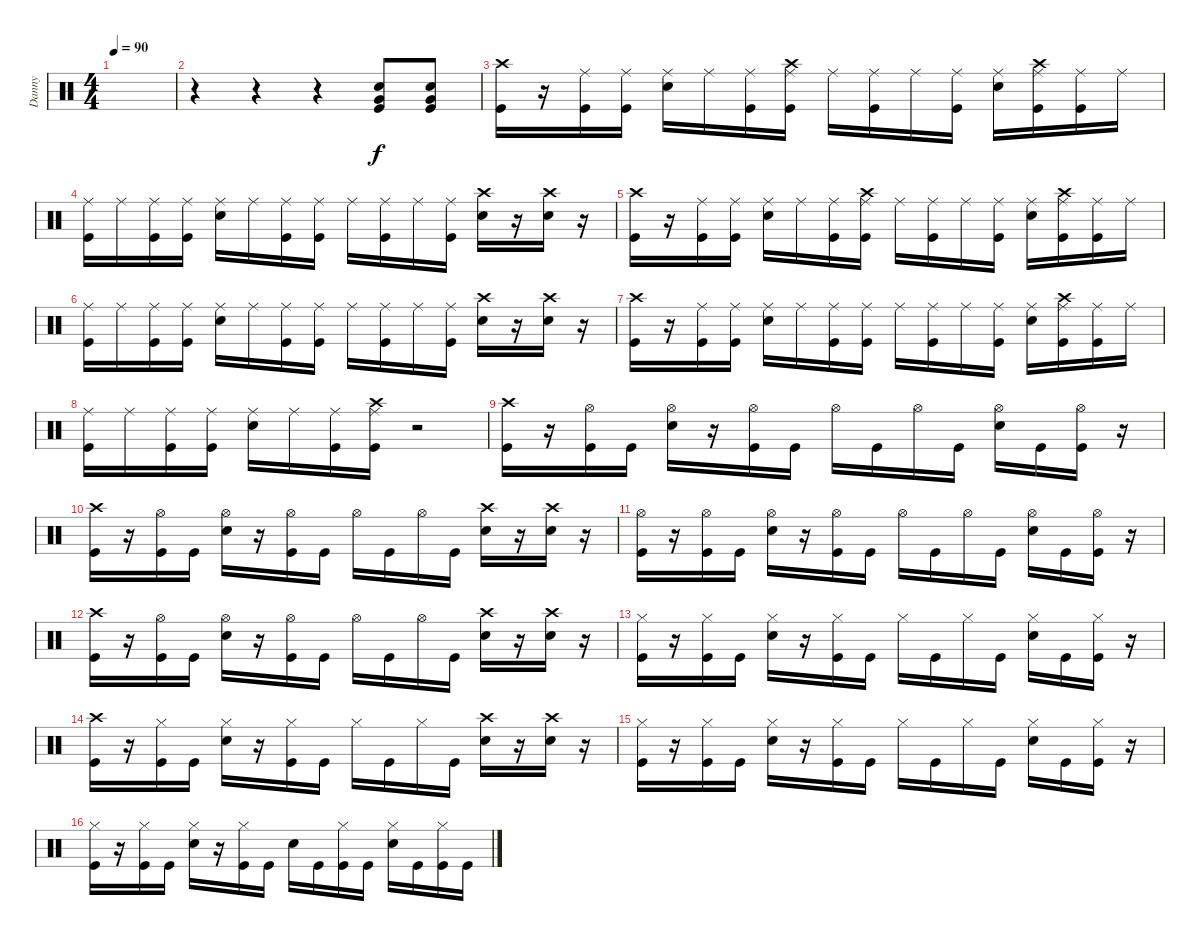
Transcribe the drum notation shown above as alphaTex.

\track ("Danny" "Danny") {instrument percussion}
\staff {score}
\articulation defaults
\ts (4 4)
\tempo 90
\clef neutral
\ks c
|
r.4 r.4 r.4 ("Electric Snare (hit)" "Very Low Tom (hit)" "Kick (hit)").8 ("Electric Snare (hit)" "Very Low Tom (hit)" "Kick (hit)").8 |
("Crash high (hit)" "Kick (hit)").16 r.16 ("Ride (middle)" "Kick (hit)").16 ("Ride (middle)" "Kick (hit)").16 ("Ride (middle)" "Electric Snare (hit)").16 "Ride (middle)".16 ("Ride (middle)" "Kick (hit)").16 ("Crash high (hit)" "Ride (middle)" "Kick (hit)").16 "Ride (middle)".16 ("Ride (middle)" "Kick (hit)").16 "Ride (middle)".16 ("Ride (middle)" "Kick (hit)").16 ("Ride (middle)" "Electric Snare (hit)").16 ("Crash high (hit)" "Ride (middle)" "Kick (hit)").16 ("Ride (middle)" "Kick (hit)").16 "Ride (middle)".16 |
("Ride (middle)" "Kick (hit)").16 "Ride (middle)".16 ("Ride (middle)" "Kick (hit)").16 ("Ride (middle)" "Kick (hit)").16 ("Ride (middle)" "Electric Snare (hit)").16 "Ride (middle)".16 ("Ride (middle)" "Kick (hit)").16 ("Ride (middle)" "Kick (hit)").16 "Ride (middle)".16 ("Ride (middle)" "Kick (hit)").16 "Ride (middle)".16 ("Ride (middle)" "Kick (hit)").16 ("Crash high (hit)" "Electric Snare (hit)").16 r.16 ("Crash high (hit)" "Electric Snare (hit)").16 r.16 |
("Crash high (hit)" "Kick (hit)").16 r.16 ("Ride (middle)" "Kick (hit)").16 ("Ride (middle)" "Kick (hit)").16 ("Ride (middle)" "Electric Snare (hit)").16 "Ride (middle)".16 ("Ride (middle)" "Kick (hit)").16 ("Crash high (hit)" "Ride (middle)" "Kick (hit)").16 "Ride (middle)".16 ("Ride (middle)" "Kick (hit)").16 "Ride (middle)".16 ("Ride (middle)" "Kick (hit)").16 ("Ride (middle)" "Electric Snare (hit)").16 ("Crash high (hit)" "Ride (middle)" "Kick (hit)").16 ("Ride (middle)" "Kick (hit)").16 "Ride (middle)".16 |
("Ride (middle)" "Kick (hit)").16 "Ride (middle)".16 ("Ride (middle)" "Kick (hit)").16 ("Ride (middle)" "Kick (hit)").16 ("Ride (middle)" "Electric Snare (hit)").16 "Ride (middle)".16 ("Ride (middle)" "Kick (hit)").16 ("Ride (middle)" "Kick (hit)").16 "Ride (middle)".16 ("Ride (middle)" "Kick (hit)").16 "Ride (middle)".16 ("Ride (middle)" "Kick (hit)").16 ("Crash high (hit)" "Electric Snare (hit)").16 r.16 ("Crash high (hit)" "Electric Snare (hit)").16 r.16 |
("Crash high (hit)" "Kick (hit)").16 r.16 ("Ride (middle)" "Kick (hit)").16 ("Ride (middle)" "Kick (hit)").16 ("Ride (middle)" "Electric Snare (hit)").16 "Ride (middle)".16 ("Ride (middle)" "Kick (hit)").16 ("Ride (middle)" "Kick (hit)").16 "Ride (middle)".16 ("Ride (middle)" "Kick (hit)").16 "Ride (middle)".16 ("Ride (middle)" "Kick (hit)").16 ("Ride (middle)" "Electric Snare (hit)").16 ("Crash high (hit)" "Ride (middle)" "Kick (hit)").16 ("Ride (middle)" "Kick (hit)").16 "Ride (middle)".16 |
("Ride (middle)" "Kick (hit)").16 "Ride (middle)".16 ("Ride (middle)" "Kick (hit)").16 ("Ride (middle)" "Kick (hit)").16 ("Ride (middle)" "Electric Snare (hit)").16 "Ride (middle)".16 ("Ride (middle)" "Kick (hit)").16 ("Crash high (hit)" "Ride (middle)" "Kick (hit)").16 r.2 |
("Crash high (hit)" "Kick (hit)").16 r.16 ("Hi-Hat (open)" "Kick (hit)").16 "Kick (hit)".16 ("Hi-Hat (open)" "Electric Snare (hit)").16 r.16 ("Hi-Hat (open)" "Kick (hit)").16 "Kick (hit)".16 "Hi-Hat (open)".16 "Kick (hit)".16 "Hi-Hat (open)".16 "Kick (hit)".16 ("Hi-Hat (open)" "Electric Snare (hit)").16 "Kick (hit)".16 ("Hi-Hat (open)" "Kick (hit)").16 r.16 |
("Crash high (hit)" "Kick (hit)").16 r.16 ("Hi-Hat (open)" "Kick (hit)").16 "Kick (hit)".16 ("Hi-Hat (open)" "Electric Snare (hit)").16 r.16 ("Hi-Hat (open)" "Kick (hit)").16 "Kick (hit)".16 "Hi-Hat (open)".16 "Kick (hit)".16 "Hi-Hat (open)".16 "Kick (hit)".16 ("Crash high (hit)" "Electric Snare (hit)").16 r.16 ("Crash high (hit)" "Electric Snare (hit)").16 r.16 |
("Hi-Hat (open)" "Kick (hit)").16 r.16 ("Hi-Hat (open)" "Kick (hit)").16 "Kick (hit)".16 ("Hi-Hat (open)" "Electric Snare (hit)").16 r.16 ("Hi-Hat (open)" "Kick (hit)").16 "Kick (hit)".16 "Hi-Hat (open)".16 "Kick (hit)".16 "Hi-Hat (open)".16 "Kick (hit)".16 ("Hi-Hat (open)" "Electric Snare (hit)").16 "Kick (hit)".16 ("Hi-Hat (open)" "Kick (hit)").16 r.16 |
("Crash high (hit)" "Kick (hit)").16 r.16 ("Hi-Hat (open)" "Kick (hit)").16 "Kick (hit)".16 ("Hi-Hat (open)" "Electric Snare (hit)").16 r.16 ("Hi-Hat (open)" "Kick (hit)").16 "Kick (hit)".16 "Hi-Hat (open)".16 "Kick (hit)".16 "Hi-Hat (open)".16 "Kick (hit)".16 ("Crash high (hit)" "Electric Snare (hit)").16 r.16 ("Crash high (hit)" "Electric Snare (hit)").16 r.16 |
("Hi-Hat (closed)" "Kick (hit)").16 r.16 ("Hi-Hat (closed)" "Kick (hit)").16 "Kick (hit)".16 ("Hi-Hat (closed)" "Electric Snare (hit)").16 r.16 ("Hi-Hat (closed)" "Kick (hit)").16 "Kick (hit)".16 "Hi-Hat (closed)".16 "Kick (hit)".16 "Hi-Hat (closed)".16 "Kick (hit)".16 ("Hi-Hat (closed)" "Electric Snare (hit)").16 "Kick (hit)".16 ("Hi-Hat (closed)" "Kick (hit)").16 r.16 |
("Crash high (hit)" "Kick (hit)").16 r.16 ("Hi-Hat (closed)" "Kick (hit)").16 "Kick (hit)".16 ("Hi-Hat (closed)" "Electric Snare (hit)").16 r.16 ("Hi-Hat (closed)" "Kick (hit)").16 "Kick (hit)".16 "Hi-Hat (closed)".16 "Kick (hit)".16 "Hi-Hat (closed)".16 "Kick (hit)".16 ("Crash high (hit)" "Electric Snare (hit)").16 r.16 ("Crash high (hit)" "Electric Snare (hit)").16 r.16 |
("Hi-Hat (closed)" "Kick (hit)").16 r.16 ("Hi-Hat (closed)" "Kick (hit)").16 "Kick (hit)".16 ("Hi-Hat (closed)" "Electric Snare (hit)").16 r.16 ("Hi-Hat (closed)" "Kick (hit)").16 "Kick (hit)".16 "Hi-Hat (closed)".16 "Kick (hit)".16 "Hi-Hat (closed)".16 "Kick (hit)".16 ("Hi-Hat (closed)" "Electric Snare (hit)").16 "Kick (hit)".16 ("Hi-Hat (closed)" "Kick (hit)").16 r.16 |
("Hi-Hat (closed)" "Kick (hit)").16 r.16 ("Hi-Hat (closed)" "Kick (hit)").16 "Kick (hit)".16 ("Hi-Hat (closed)" "Electric Snare (hit)").16 r.16 ("Hi-Hat (closed)" "Kick (hit)").16 "Kick (hit)".16 "Electric Snare (hit)".16 "Kick (hit)".16 ("Hi-Hat (closed)" "Kick (hit)").16 "Kick (hit)".16 ("Hi-Hat (closed)" "Electric Snare (hit)").16 "Kick (hit)".16 ("Hi-Hat (closed)" "Kick (hit)").16 "Kick (hit)".16
